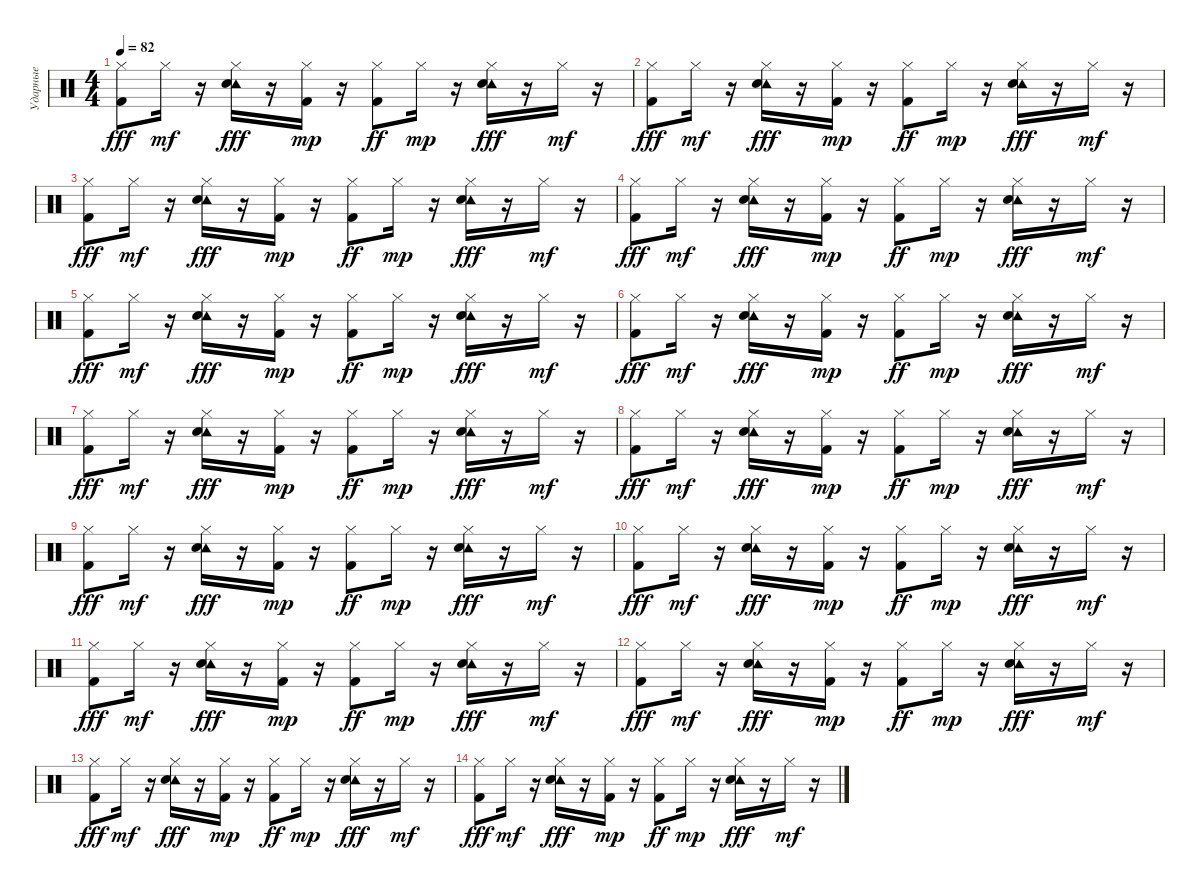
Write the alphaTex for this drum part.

\track ("Ударные" "Ударные") {instrument percussion}
\staff {score}
\articulation defaults
\ts (4 4)
\tempo 82
\clef neutral
\ks c
("Kick (hit) 2" "Hi-Hat (closed)").8{dy fff} "Hi-Hat (closed)".16{dy mf} r.16 ("Tambourine (hit)" "Hi-Hat (closed)" "Snare (hit) 2").16{dy fff} r.16 ("Kick (hit) 2" "Hi-Hat (closed)").16{dy mp} r.16 ("Kick (hit) 2" "Hi-Hat (closed)").8{dy ff} "Hi-Hat (closed)".16{dy mp} r.16 ("Tambourine (hit)" "Hi-Hat (closed)" "Snare (hit) 2").16{dy fff} r.16 "Hi-Hat (closed)".16{dy mf} r.16 |
("Kick (hit) 2" "Hi-Hat (closed)").8{dy fff} "Hi-Hat (closed)".16{dy mf} r.16 ("Tambourine (hit)" "Hi-Hat (closed)" "Snare (hit) 2").16{dy fff} r.16 ("Kick (hit) 2" "Hi-Hat (closed)").16{dy mp} r.16 ("Kick (hit) 2" "Hi-Hat (closed)").8{dy ff} "Hi-Hat (closed)".16{dy mp} r.16 ("Tambourine (hit)" "Hi-Hat (closed)" "Snare (hit) 2").16{dy fff} r.16 "Hi-Hat (closed)".16{dy mf} r.16 |
("Kick (hit) 2" "Hi-Hat (closed)").8{dy fff} "Hi-Hat (closed)".16{dy mf} r.16 ("Tambourine (hit)" "Hi-Hat (closed)" "Snare (hit) 2").16{dy fff} r.16 ("Kick (hit) 2" "Hi-Hat (closed)").16{dy mp} r.16 ("Kick (hit) 2" "Hi-Hat (closed)").8{dy ff} "Hi-Hat (closed)".16{dy mp} r.16 ("Tambourine (hit)" "Hi-Hat (closed)" "Snare (hit) 2").16{dy fff} r.16 "Hi-Hat (closed)".16{dy mf} r.16 |
("Kick (hit) 2" "Hi-Hat (closed)").8{dy fff} "Hi-Hat (closed)".16{dy mf} r.16 ("Tambourine (hit)" "Hi-Hat (closed)" "Snare (hit) 2").16{dy fff} r.16 ("Kick (hit) 2" "Hi-Hat (closed)").16{dy mp} r.16 ("Kick (hit) 2" "Hi-Hat (closed)").8{dy ff} "Hi-Hat (closed)".16{dy mp} r.16 ("Tambourine (hit)" "Hi-Hat (closed)" "Snare (hit) 2").16{dy fff} r.16 "Hi-Hat (closed)".16{dy mf} r.16 |
("Kick (hit) 2" "Hi-Hat (closed)").8{dy fff} "Hi-Hat (closed)".16{dy mf} r.16 ("Tambourine (hit)" "Hi-Hat (closed)" "Snare (hit) 2").16{dy fff} r.16 ("Kick (hit) 2" "Hi-Hat (closed)").16{dy mp} r.16 ("Kick (hit) 2" "Hi-Hat (closed)").8{dy ff} "Hi-Hat (closed)".16{dy mp} r.16 ("Tambourine (hit)" "Hi-Hat (closed)" "Snare (hit) 2").16{dy fff} r.16 "Hi-Hat (closed)".16{dy mf} r.16 |
("Kick (hit) 2" "Hi-Hat (closed)").8{dy fff} "Hi-Hat (closed)".16{dy mf} r.16 ("Tambourine (hit)" "Hi-Hat (closed)" "Snare (hit) 2").16{dy fff} r.16 ("Kick (hit) 2" "Hi-Hat (closed)").16{dy mp} r.16 ("Kick (hit) 2" "Hi-Hat (closed)").8{dy ff} "Hi-Hat (closed)".16{dy mp} r.16 ("Tambourine (hit)" "Hi-Hat (closed)" "Snare (hit) 2").16{dy fff} r.16 "Hi-Hat (closed)".16{dy mf} r.16 |
("Kick (hit) 2" "Hi-Hat (closed)").8{dy fff} "Hi-Hat (closed)".16{dy mf} r.16 ("Tambourine (hit)" "Hi-Hat (closed)" "Snare (hit) 2").16{dy fff} r.16 ("Kick (hit) 2" "Hi-Hat (closed)").16{dy mp} r.16 ("Kick (hit) 2" "Hi-Hat (closed)").8{dy ff} "Hi-Hat (closed)".16{dy mp} r.16 ("Tambourine (hit)" "Hi-Hat (closed)" "Snare (hit) 2").16{dy fff} r.16 "Hi-Hat (closed)".16{dy mf} r.16 |
("Kick (hit) 2" "Hi-Hat (closed)").8{dy fff} "Hi-Hat (closed)".16{dy mf} r.16 ("Tambourine (hit)" "Hi-Hat (closed)" "Snare (hit) 2").16{dy fff} r.16 ("Kick (hit) 2" "Hi-Hat (closed)").16{dy mp} r.16 ("Kick (hit) 2" "Hi-Hat (closed)").8{dy ff} "Hi-Hat (closed)".16{dy mp} r.16 ("Tambourine (hit)" "Hi-Hat (closed)" "Snare (hit) 2").16{dy fff} r.16 "Hi-Hat (closed)".16{dy mf} r.16 |
("Kick (hit) 2" "Hi-Hat (closed)").8{dy fff} "Hi-Hat (closed)".16{dy mf} r.16 ("Tambourine (hit)" "Hi-Hat (closed)" "Snare (hit) 2").16{dy fff} r.16 ("Kick (hit) 2" "Hi-Hat (closed)").16{dy mp} r.16 ("Kick (hit) 2" "Hi-Hat (closed)").8{dy ff} "Hi-Hat (closed)".16{dy mp} r.16 ("Tambourine (hit)" "Hi-Hat (closed)" "Snare (hit) 2").16{dy fff} r.16 "Hi-Hat (closed)".16{dy mf} r.16 |
("Kick (hit) 2" "Hi-Hat (closed)").8{dy fff} "Hi-Hat (closed)".16{dy mf} r.16 ("Tambourine (hit)" "Hi-Hat (closed)" "Snare (hit) 2").16{dy fff} r.16 ("Kick (hit) 2" "Hi-Hat (closed)").16{dy mp} r.16 ("Kick (hit) 2" "Hi-Hat (closed)").8{dy ff} "Hi-Hat (closed)".16{dy mp} r.16 ("Tambourine (hit)" "Hi-Hat (closed)" "Snare (hit) 2").16{dy fff} r.16 "Hi-Hat (closed)".16{dy mf} r.16 |
("Kick (hit) 2" "Hi-Hat (closed)").8{dy fff} "Hi-Hat (closed)".16{dy mf} r.16 ("Tambourine (hit)" "Hi-Hat (closed)" "Snare (hit) 2").16{dy fff} r.16 ("Kick (hit) 2" "Hi-Hat (closed)").16{dy mp} r.16 ("Kick (hit) 2" "Hi-Hat (closed)").8{dy ff} "Hi-Hat (closed)".16{dy mp} r.16 ("Tambourine (hit)" "Hi-Hat (closed)" "Snare (hit) 2").16{dy fff} r.16 "Hi-Hat (closed)".16{dy mf} r.16 |
("Kick (hit) 2" "Hi-Hat (closed)").8{dy fff} "Hi-Hat (closed)".16{dy mf} r.16 ("Tambourine (hit)" "Hi-Hat (closed)" "Snare (hit) 2").16{dy fff} r.16 ("Kick (hit) 2" "Hi-Hat (closed)").16{dy mp} r.16 ("Kick (hit) 2" "Hi-Hat (closed)").8{dy ff} "Hi-Hat (closed)".16{dy mp} r.16 ("Tambourine (hit)" "Hi-Hat (closed)" "Snare (hit) 2").16{dy fff} r.16 "Hi-Hat (closed)".16{dy mf} r.16 |
("Kick (hit) 2" "Hi-Hat (closed)").8{dy fff} "Hi-Hat (closed)".16{dy mf} r.16 ("Tambourine (hit)" "Hi-Hat (closed)" "Snare (hit) 2").16{dy fff} r.16 ("Kick (hit) 2" "Hi-Hat (closed)").16{dy mp} r.16 ("Kick (hit) 2" "Hi-Hat (closed)").8{dy ff} "Hi-Hat (closed)".16{dy mp} r.16 ("Tambourine (hit)" "Hi-Hat (closed)" "Snare (hit) 2").16{dy fff} r.16 "Hi-Hat (closed)".16{dy mf} r.16 |
("Kick (hit) 2" "Hi-Hat (closed)").8{dy fff} "Hi-Hat (closed)".16{dy mf} r.16 ("Tambourine (hit)" "Hi-Hat (closed)" "Snare (hit) 2").16{dy fff} r.16 ("Kick (hit) 2" "Hi-Hat (closed)").16{dy mp} r.16 ("Kick (hit) 2" "Hi-Hat (closed)").8{dy ff} "Hi-Hat (closed)".16{dy mp} r.16 ("Tambourine (hit)" "Hi-Hat (closed)" "Snare (hit) 2").16{dy fff} r.16 "Hi-Hat (closed)".16{dy mf} r.16
